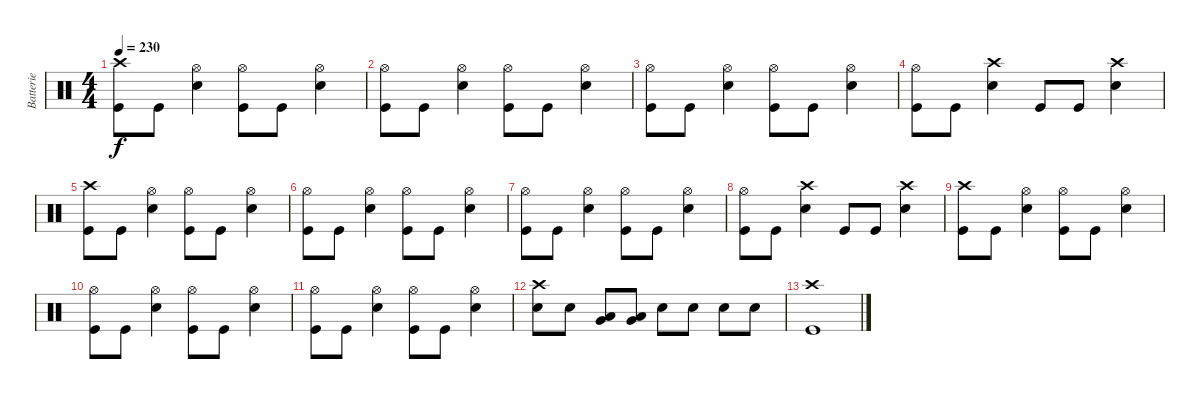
\track ("Batterie" "Batterie") {instrument percussion}
\staff {score}
\articulation defaults
\ts (4 4)
\tempo 230
\clef neutral
\ks c
("Crash high (hit)" "Kick (hit)").8{dy f} "Kick (hit)".8 ("Hi-Hat (open)" "Snare (hit) 2").4 ("Hi-Hat (open)" "Kick (hit)").8 "Kick (hit)".8 ("Hi-Hat (open)" "Snare (hit) 2").4 |
("Hi-Hat (open)" "Kick (hit)").8 "Kick (hit)".8 ("Hi-Hat (open)" "Snare (hit) 2").4 ("Hi-Hat (open)" "Kick (hit)").8 "Kick (hit)".8 ("Hi-Hat (open)" "Snare (hit) 2").4 |
("Hi-Hat (open)" "Kick (hit)").8 "Kick (hit)".8 ("Hi-Hat (open)" "Snare (hit) 2").4 ("Hi-Hat (open)" "Kick (hit)").8 "Kick (hit)".8 ("Hi-Hat (open)" "Snare (hit) 2").4 |
("Hi-Hat (open)" "Kick (hit)").8 "Kick (hit)".8 ("Crash high (hit)" "Snare (hit) 2").4 "Kick (hit)".8 "Kick (hit)".8 ("Crash high (hit)" "Snare (hit) 2").4 |
("Crash high (hit)" "Kick (hit)").8 "Kick (hit)".8 ("Hi-Hat (open)" "Snare (hit) 2").4 ("Hi-Hat (open)" "Kick (hit)").8 "Kick (hit)".8 ("Hi-Hat (open)" "Snare (hit) 2").4 |
("Hi-Hat (open)" "Kick (hit)").8 "Kick (hit)".8 ("Hi-Hat (open)" "Snare (hit) 2").4 ("Hi-Hat (open)" "Kick (hit)").8 "Kick (hit)".8 ("Hi-Hat (open)" "Snare (hit) 2").4 |
("Hi-Hat (open)" "Kick (hit)").8 "Kick (hit)".8 ("Hi-Hat (open)" "Snare (hit) 2").4 ("Hi-Hat (open)" "Kick (hit)").8 "Kick (hit)".8 ("Hi-Hat (open)" "Snare (hit) 2").4 |
("Hi-Hat (open)" "Kick (hit)").8 "Kick (hit)".8 ("Crash high (hit)" "Snare (hit) 2").4 "Kick (hit)".8 "Kick (hit)".8 ("Crash high (hit)" "Snare (hit) 2").4 |
("Crash high (hit)" "Kick (hit)").8 "Kick (hit)".8 ("Hi-Hat (open)" "Snare (hit) 2").4 ("Hi-Hat (open)" "Kick (hit)").8 "Kick (hit)".8 ("Hi-Hat (open)" "Snare (hit) 2").4 |
("Hi-Hat (open)" "Kick (hit)").8 "Kick (hit)".8 ("Hi-Hat (open)" "Snare (hit) 2").4 ("Hi-Hat (open)" "Kick (hit)").8 "Kick (hit)".8 ("Hi-Hat (open)" "Snare (hit) 2").4 |
("Hi-Hat (open)" "Kick (hit)").8 "Kick (hit)".8 ("Hi-Hat (open)" "Snare (hit) 2").4 ("Hi-Hat (open)" "Kick (hit)").8 "Kick (hit)".8 ("Hi-Hat (open)" "Snare (hit) 2").4 |
("Crash high (hit)" "Snare (hit) 2").8 "Snare (hit) 2".8 ("Low Tom (hit)" "Very Low Tom (hit)").8 ("Low Tom (hit)" "Very Low Tom (hit)").8 "Snare (hit) 2".8 "Snare (hit) 2".8 "Snare (hit) 2".8 "Snare (hit) 2".8 |
("Crash high (hit)" "Kick (hit)").1
